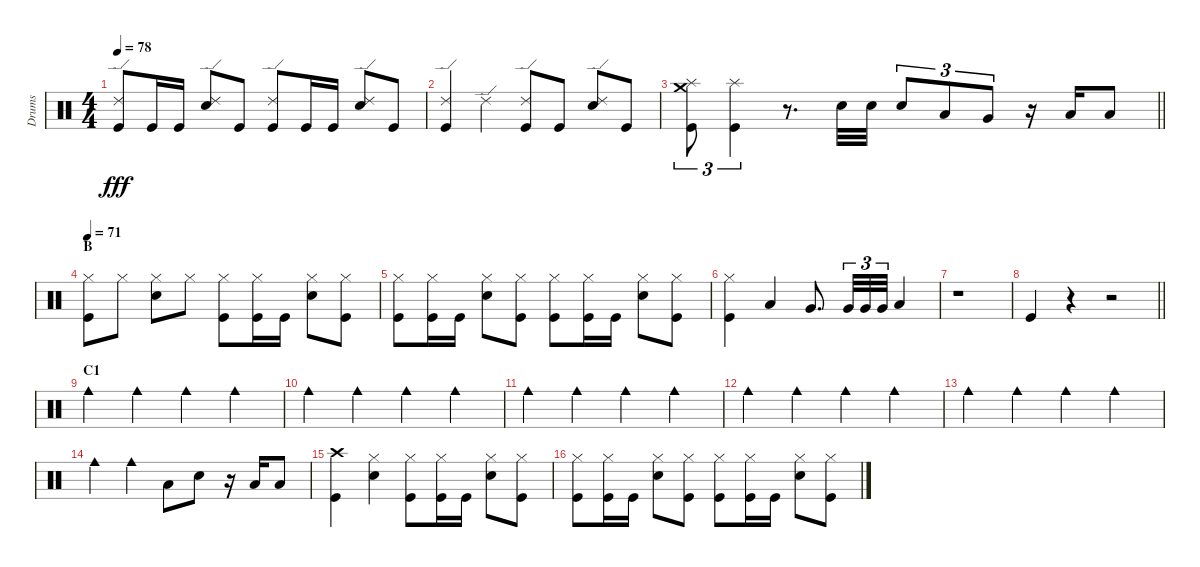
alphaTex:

\track ("Drums" "Drums") {instrument percussion}
\staff {score}
\articulation defaults
\ts (4 4)
\tempo 78
\clef neutral
\ks c
("Ride (edge) 2" "Kick (hit)").8{dy fff} "Kick (hit)".16 "Kick (hit)".16 ("Ride (edge) 2" "Electric Snare (hit)").8 "Kick (hit)".8 ("Ride (edge) 2" "Kick (hit)").8 "Kick (hit)".16 "Kick (hit)".16 ("Ride (edge) 2" "Electric Snare (hit)").8 "Kick (hit)".8 |
("Ride (edge) 2" "Kick (hit)").4 "Ride (edge) 2".4 ("Ride (edge) 2" "Kick (hit)").8 "Kick (hit)".8 ("Ride (edge) 2" "Electric Snare (hit)").8 "Kick (hit)".8 |
\barLineRight lightlight
("Splash (hit)" "Crash medium (hit)" "Kick (hit)").8{tu (3 2)} ("Splash (hit)" "Kick (hit)").4{tu (3 2)} r.8{d} "Electric Snare (hit)".32 "Electric Snare (hit)".32 "Electric Snare (hit)".8{tu (3 2)} "Low Tom (hit)".8{tu (3 2)} "Very Low Tom (hit)".8{tu (3 2)} r.16 "Low Tom (hit)".16 "Low Floor Tom (hit)".8 |
\section ("" "B")
\tempo 71
("Hi-Hat (closed)" "Kick (hit)").8 "Hi-Hat (closed)".8 ("Hi-Hat (closed)" "Electric Snare (hit)").8 "Hi-Hat (closed)".8 ("Hi-Hat (closed)" "Kick (hit)").8 ("Hi-Hat (closed)" "Kick (hit)").16 "Kick (hit)".16 ("Hi-Hat (closed)" "Electric Snare (hit)").8 ("Hi-Hat (closed)" "Kick (hit)").8 |
("Hi-Hat (closed)" "Kick (hit)").8 ("Hi-Hat (closed)" "Kick (hit)").16 "Kick (hit)".16 ("Hi-Hat (closed)" "Electric Snare (hit)").8 ("Hi-Hat (closed)" "Kick (hit)").8 ("Hi-Hat (closed)" "Kick (hit)").8 ("Hi-Hat (closed)" "Kick (hit)").16 "Kick (hit)".16 ("Hi-Hat (closed)" "Electric Snare (hit)").8 ("Hi-Hat (closed)" "Kick (hit)").8 |
("Hi-Hat (closed)" "Kick (hit)").4 "Low Tom (hit)".4 "Very Low Tom (hit)".8{d} "Very Low Tom (hit)".32{tu (3 2)} "Very Low Tom (hit)".32{tu (3 2)} "Very Low Tom (hit)".32{tu (3 2)} "Low Floor Tom (hit)".4 |
r.1 |
\barLineRight lightlight "Kick (hit)".4
r.4 r.2 |
\section ("" "C1")
"Cowbell medium (hit)".4 "Cowbell medium (hit)".4 "Cowbell medium (hit)".4 "Cowbell medium (hit)".4 |
"Cowbell medium (hit)".4 "Cowbell medium (hit)".4 "Cowbell medium (hit)".4 "Cowbell medium (hit)".4 |
"Cowbell medium (hit)".4 "Cowbell medium (hit)".4 "Cowbell medium (hit)".4 "Cowbell medium (hit)".4 |
"Cowbell medium (hit)".4 "Cowbell medium (hit)".4 "Cowbell medium (hit)".4 "Cowbell medium (hit)".4 |
"Cowbell medium (hit)".4 "Cowbell medium (hit)".4 "Cowbell medium (hit)".4 "Cowbell medium (hit)".4 |
"Cowbell medium (hit)".4 "Cowbell medium (hit)".4 "Low Floor Tom (hit)".8 "Electric Snare (hit)".8 r.16 "Low Tom (hit)".16 "Low Tom (hit)".8 |
("Crash high (hit)" "Kick (hit)").4 ("Hi-Hat (closed)" "Electric Snare (hit)").4 ("Hi-Hat (closed)" "Kick (hit)").8 ("Hi-Hat (closed)" "Kick (hit)").16 "Kick (hit)".16 ("Hi-Hat (closed)" "Electric Snare (hit)").8 ("Hi-Hat (closed)" "Kick (hit)").8 |
("Hi-Hat (closed)" "Kick (hit)").8 ("Hi-Hat (closed)" "Kick (hit)").16 "Kick (hit)".16 ("Hi-Hat (closed)" "Electric Snare (hit)").8 ("Hi-Hat (closed)" "Kick (hit)").8 ("Hi-Hat (closed)" "Kick (hit)").8 ("Hi-Hat (closed)" "Kick (hit)").16 "Kick (hit)".16 ("Hi-Hat (closed)" "Electric Snare (hit)").8 ("Hi-Hat (closed)" "Kick (hit)").8
